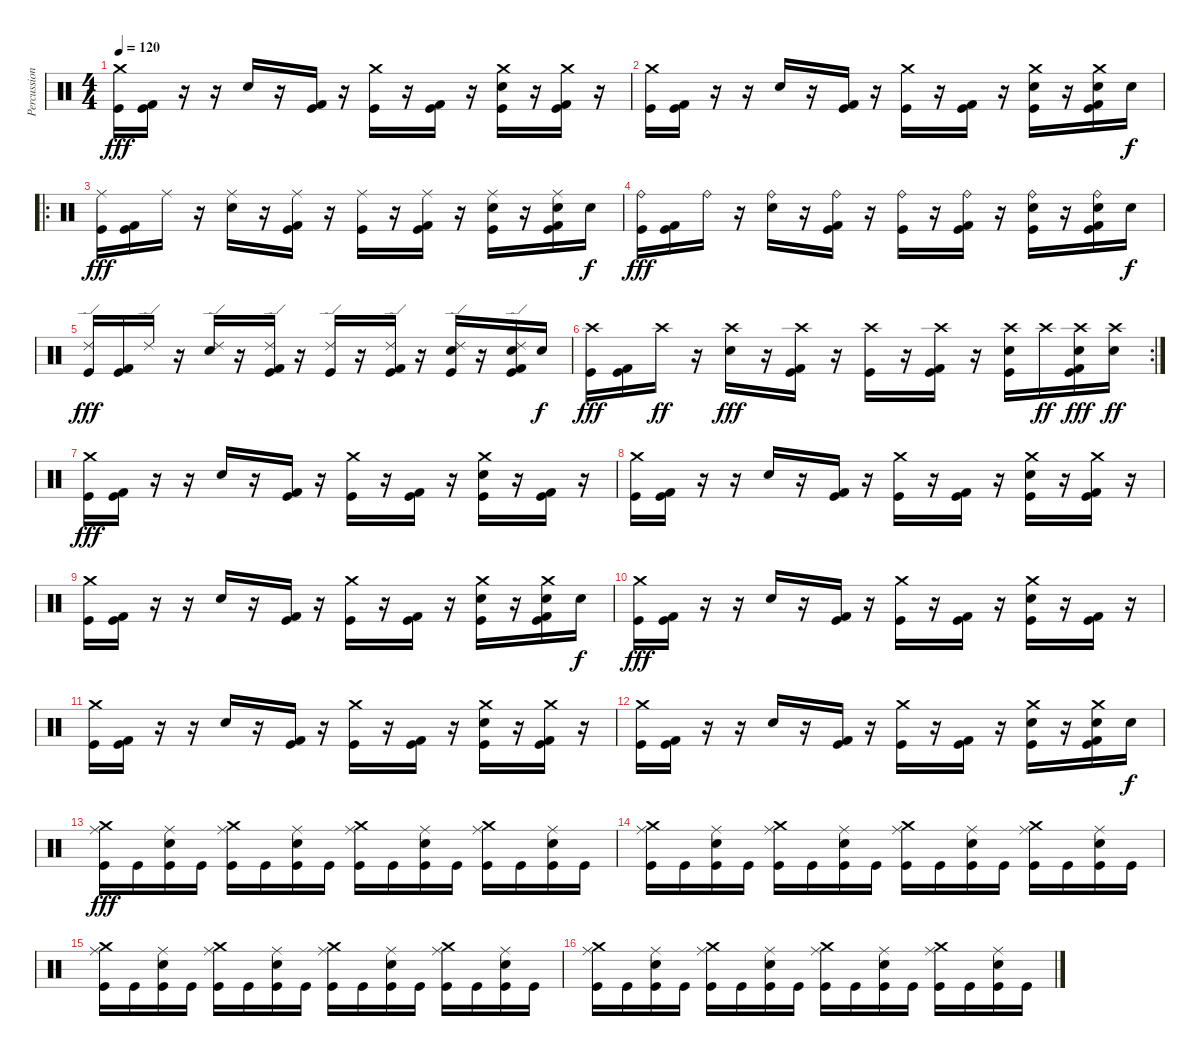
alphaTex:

\track ("Percussions" "Percussion") {instrument percussion}
\staff {score}
\articulation defaults
\ts (4 4)
\tempo 120
\clef neutral
\ks c
("Crash medium (hit)" "Kick (hit)").16{dy fff} ("Kick (hit) 2" "Kick (hit)").16 r.16 r.16 "Snare (hit) 2".16 r.16 ("Kick (hit) 2" "Kick (hit)").16 r.16 ("Crash medium (hit)" "Kick (hit)").16 r.16 ("Kick (hit) 2" "Kick (hit)").16 r.16 ("Crash medium (hit)" "Snare (hit) 2" "Kick (hit)").16 r.16 ("Crash medium (hit)" "Kick (hit) 2" "Kick (hit)").16 r.16 |
("Crash medium (hit)" "Kick (hit)").16 ("Kick (hit) 2" "Kick (hit)").16 r.16 r.16 "Snare (hit) 2".16 r.16 ("Kick (hit) 2" "Kick (hit)").16 r.16 ("Crash medium (hit)" "Kick (hit)").16 r.16 ("Kick (hit) 2" "Kick (hit)").16 r.16 ("Crash medium (hit)" "Snare (hit) 2" "Kick (hit)").16 r.16 ("Crash medium (hit)" "Snare (hit) 2" "Kick (hit) 2" "Kick (hit)").16 "Snare (hit) 2".16{dy f} |
\ro
("Ride (middle)" "Kick (hit)").16{dy fff} ("Kick (hit) 2" "Kick (hit)").16 "Ride (middle)".16 r.16 ("Ride (middle)" "Snare (hit) 2").16 r.16 ("Ride (middle)" "Kick (hit) 2" "Kick (hit)").16 r.16 ("Ride (middle)" "Kick (hit)").16 r.16 ("Ride (middle)" "Kick (hit) 2" "Kick (hit)").16 r.16 ("Ride (middle)" "Snare (hit) 2" "Kick (hit)").16 r.16 ("Ride (middle)" "Snare (hit) 2" "Kick (hit) 2" "Kick (hit)").16 "Snare (hit) 2".16{dy f} |
("Ride (bell)" "Kick (hit)").16{dy fff} ("Kick (hit) 2" "Kick (hit)").16 "Ride (bell)".16 r.16 ("Ride (bell)" "Snare (hit) 2").16 r.16 ("Ride (bell)" "Kick (hit) 2" "Kick (hit)").16 r.16 ("Ride (bell)" "Kick (hit)").16 r.16 ("Ride (bell)" "Kick (hit) 2" "Kick (hit)").16 r.16 ("Ride (bell)" "Snare (hit) 2" "Kick (hit)").16 r.16 ("Ride (bell)" "Snare (hit) 2" "Kick (hit) 2" "Kick (hit)").16 "Snare (hit) 2".16{dy f} |
("Ride (edge) 2" "Kick (hit)").16{dy fff} ("Kick (hit) 2" "Kick (hit)").16 "Ride (edge) 2".16 r.16 ("Ride (edge) 2" "Snare (hit) 2").16 r.16 ("Ride (edge) 2" "Kick (hit) 2" "Kick (hit)").16 r.16 ("Ride (edge) 2" "Kick (hit)").16 r.16 ("Ride (edge) 2" "Kick (hit) 2" "Kick (hit)").16 r.16 ("Ride (edge) 2" "Snare (hit) 2" "Kick (hit)").16 r.16 ("Ride (edge) 2" "Snare (hit) 2" "Kick (hit) 2" "Kick (hit)").16 "Snare (hit) 2".16{dy f} |
\rc 2
("Crash high (hit)" "Kick (hit)").16{dy fff} ("Kick (hit) 2" "Kick (hit)").16 "Crash high (hit)".16{dy ff} r.16 ("Crash high (hit)" "Snare (hit) 2").16{dy fff} r.16 ("Crash high (hit)" "Kick (hit) 2" "Kick (hit)").16 r.16 ("Crash high (hit)" "Kick (hit)").16 r.16 ("Crash high (hit)" "Kick (hit) 2" "Kick (hit)").16 r.16 ("Crash high (hit)" "Snare (hit) 2" "Kick (hit)").16 "Crash high (hit)".16{dy ff} ("Crash high (hit)" "Snare (hit) 2" "Kick (hit) 2" "Kick (hit)").16{dy fff} ("Crash high (hit)" "Snare (hit) 2").16{dy ff} |
("Crash medium (hit)" "Kick (hit)").16{dy fff} ("Kick (hit) 2" "Kick (hit)").16 r.16 r.16 "Snare (hit) 2".16 r.16 ("Kick (hit) 2" "Kick (hit)").16 r.16 ("Crash medium (hit)" "Kick (hit)").16 r.16 ("Kick (hit) 2" "Kick (hit)").16 r.16 ("Crash medium (hit)" "Snare (hit) 2" "Kick (hit)").16 r.16 ("Kick (hit) 2" "Kick (hit)").16 r.16 |
("Crash medium (hit)" "Kick (hit)").16 ("Kick (hit) 2" "Kick (hit)").16 r.16 r.16 "Snare (hit) 2".16 r.16 ("Kick (hit) 2" "Kick (hit)").16 r.16 ("Crash medium (hit)" "Kick (hit)").16 r.16 ("Kick (hit) 2" "Kick (hit)").16 r.16 ("Crash medium (hit)" "Snare (hit) 2" "Kick (hit)").16 r.16 ("Crash medium (hit)" "Kick (hit) 2" "Kick (hit)").16 r.16 |
("Crash medium (hit)" "Kick (hit)").16 ("Kick (hit) 2" "Kick (hit)").16 r.16 r.16 "Snare (hit) 2".16 r.16 ("Kick (hit) 2" "Kick (hit)").16 r.16 ("Crash medium (hit)" "Kick (hit)").16 r.16 ("Kick (hit) 2" "Kick (hit)").16 r.16 ("Crash medium (hit)" "Snare (hit) 2" "Kick (hit)").16 r.16 ("Crash medium (hit)" "Snare (hit) 2" "Kick (hit) 2" "Kick (hit)").16 "Snare (hit) 2".16{dy f} |
("Crash medium (hit)" "Kick (hit)").16{dy fff} ("Kick (hit) 2" "Kick (hit)").16 r.16 r.16 "Snare (hit) 2".16 r.16 ("Kick (hit) 2" "Kick (hit)").16 r.16 ("Crash medium (hit)" "Kick (hit)").16 r.16 ("Kick (hit) 2" "Kick (hit)").16 r.16 ("Crash medium (hit)" "Snare (hit) 2" "Kick (hit)").16 r.16 ("Kick (hit) 2" "Kick (hit)").16 r.16 |
("Crash medium (hit)" "Kick (hit)").16 ("Kick (hit) 2" "Kick (hit)").16 r.16 r.16 "Snare (hit) 2".16 r.16 ("Kick (hit) 2" "Kick (hit)").16 r.16 ("Crash medium (hit)" "Kick (hit)").16 r.16 ("Kick (hit) 2" "Kick (hit)").16 r.16 ("Crash medium (hit)" "Snare (hit) 2" "Kick (hit)").16 r.16 ("Crash medium (hit)" "Kick (hit) 2" "Kick (hit)").16 r.16 |
("Crash medium (hit)" "Kick (hit)").16 ("Kick (hit) 2" "Kick (hit)").16 r.16 r.16 "Snare (hit) 2".16 r.16 ("Kick (hit) 2" "Kick (hit)").16 r.16 ("Crash medium (hit)" "Kick (hit)").16 r.16 ("Kick (hit) 2" "Kick (hit)").16 r.16 ("Crash medium (hit)" "Snare (hit) 2" "Kick (hit)").16 r.16 ("Crash medium (hit)" "Snare (hit) 2" "Kick (hit) 2" "Kick (hit)").16 "Snare (hit) 2".16{dy f} |
("Ride (middle)" "Crash medium (hit)" "Kick (hit)").16{dy fff} "Kick (hit)".16 ("Ride (middle)" "Snare (hit) 2" "Kick (hit)").16 "Kick (hit)".16 ("Ride (middle)" "Crash medium (hit)" "Kick (hit)").16 "Kick (hit)".16 ("Ride (middle)" "Snare (hit) 2" "Kick (hit)").16 "Kick (hit)".16 ("Ride (middle)" "Crash medium (hit)" "Kick (hit)").16 "Kick (hit)".16 ("Ride (middle)" "Snare (hit) 2" "Kick (hit)").16 "Kick (hit)".16 ("Ride (middle)" "Crash medium (hit)" "Kick (hit)").16 "Kick (hit)".16 ("Ride (middle)" "Snare (hit) 2" "Kick (hit)").16 "Kick (hit)".16 |
("Ride (middle)" "Crash medium (hit)" "Kick (hit)").16 "Kick (hit)".16 ("Ride (middle)" "Snare (hit) 2" "Kick (hit)").16 "Kick (hit)".16 ("Ride (middle)" "Crash medium (hit)" "Kick (hit)").16 "Kick (hit)".16 ("Ride (middle)" "Snare (hit) 2" "Kick (hit)").16 "Kick (hit)".16 ("Ride (middle)" "Crash medium (hit)" "Kick (hit)").16 "Kick (hit)".16 ("Ride (middle)" "Snare (hit) 2" "Kick (hit)").16 "Kick (hit)".16 ("Ride (middle)" "Crash medium (hit)" "Kick (hit)").16 "Kick (hit)".16 ("Ride (middle)" "Snare (hit) 2" "Kick (hit)").16 "Kick (hit)".16 |
("Ride (middle)" "Crash medium (hit)" "Kick (hit)").16 "Kick (hit)".16 ("Ride (middle)" "Snare (hit) 2" "Kick (hit)").16 "Kick (hit)".16 ("Ride (middle)" "Crash medium (hit)" "Kick (hit)").16 "Kick (hit)".16 ("Ride (middle)" "Snare (hit) 2" "Kick (hit)").16 "Kick (hit)".16 ("Ride (middle)" "Crash medium (hit)" "Kick (hit)").16 "Kick (hit)".16 ("Ride (middle)" "Snare (hit) 2" "Kick (hit)").16 "Kick (hit)".16 ("Ride (middle)" "Crash medium (hit)" "Kick (hit)").16 "Kick (hit)".16 ("Ride (middle)" "Snare (hit) 2" "Kick (hit)").16 "Kick (hit)".16 |
("Ride (middle)" "Crash medium (hit)" "Kick (hit)").16 "Kick (hit)".16 ("Ride (middle)" "Snare (hit) 2" "Kick (hit)").16 "Kick (hit)".16 ("Ride (middle)" "Crash medium (hit)" "Kick (hit)").16 "Kick (hit)".16 ("Ride (middle)" "Snare (hit) 2" "Kick (hit)").16 "Kick (hit)".16 ("Ride (middle)" "Crash medium (hit)" "Kick (hit)").16 "Kick (hit)".16 ("Ride (middle)" "Snare (hit) 2" "Kick (hit)").16 "Kick (hit)".16 ("Ride (middle)" "Crash medium (hit)" "Kick (hit)").16 "Kick (hit)".16 ("Ride (middle)" "Snare (hit) 2" "Kick (hit)").16 "Kick (hit)".16
